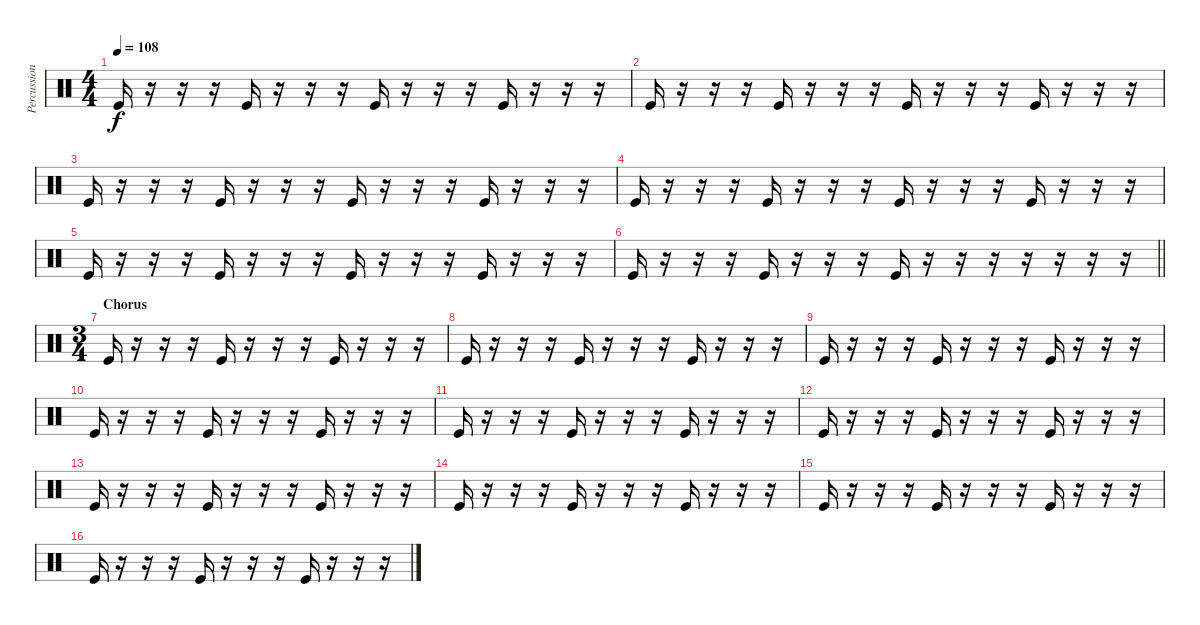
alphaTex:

\track ("Percussion" "Percussion") {instrument percussion}
\staff {score}
\articulation defaults
\ts (4 4)
\tempo 108
\clef neutral
\ks c "Kick (hit)".16{dy f}
r.16 r.16 r.16 "Kick (hit)".16 r.16 r.16 r.16 "Kick (hit)".16 r.16 r.16 r.16 "Kick (hit)".16 r.16 r.16 r.16 |
"Kick (hit)".16 r.16 r.16 r.16 "Kick (hit)".16 r.16 r.16 r.16 "Kick (hit)".16 r.16 r.16 r.16 "Kick (hit)".16 r.16 r.16 r.16 |
"Kick (hit)".16 r.16 r.16 r.16 "Kick (hit)".16 r.16 r.16 r.16 "Kick (hit)".16 r.16 r.16 r.16 "Kick (hit)".16 r.16 r.16 r.16 |
"Kick (hit)".16 r.16 r.16 r.16 "Kick (hit)".16 r.16 r.16 r.16 "Kick (hit)".16 r.16 r.16 r.16 "Kick (hit)".16 r.16 r.16 r.16 |
"Kick (hit)".16 r.16 r.16 r.16 "Kick (hit)".16 r.16 r.16 r.16 "Kick (hit)".16 r.16 r.16 r.16 "Kick (hit)".16 r.16 r.16 r.16 |
\barLineRight lightlight "Kick (hit)".16
r.16 r.16 r.16 "Kick (hit)".16 r.16 r.16 r.16 "Kick (hit)".16 r.16 r.16 r.16 r.16 r.16 r.16 r.16 |
\ts (3 4)
\section ("" "Chorus")
"Kick (hit)".16 r.16 r.16 r.16 "Kick (hit)".16 r.16 r.16 r.16 "Kick (hit)".16 r.16 r.16 r.16 |
"Kick (hit)".16 r.16 r.16 r.16 "Kick (hit)".16 r.16 r.16 r.16 "Kick (hit)".16 r.16 r.16 r.16 |
"Kick (hit)".16 r.16 r.16 r.16 "Kick (hit)".16 r.16 r.16 r.16 "Kick (hit)".16 r.16 r.16 r.16 |
"Kick (hit)".16 r.16 r.16 r.16 "Kick (hit)".16 r.16 r.16 r.16 "Kick (hit)".16 r.16 r.16 r.16 |
"Kick (hit)".16 r.16 r.16 r.16 "Kick (hit)".16 r.16 r.16 r.16 "Kick (hit)".16 r.16 r.16 r.16 |
"Kick (hit)".16 r.16 r.16 r.16 "Kick (hit)".16 r.16 r.16 r.16 "Kick (hit)".16 r.16 r.16 r.16 |
"Kick (hit)".16 r.16 r.16 r.16 "Kick (hit)".16 r.16 r.16 r.16 "Kick (hit)".16 r.16 r.16 r.16 |
"Kick (hit)".16 r.16 r.16 r.16 "Kick (hit)".16 r.16 r.16 r.16 "Kick (hit)".16 r.16 r.16 r.16 |
"Kick (hit)".16 r.16 r.16 r.16 "Kick (hit)".16 r.16 r.16 r.16 "Kick (hit)".16 r.16 r.16 r.16 |
"Kick (hit)".16 r.16 r.16 r.16 "Kick (hit)".16 r.16 r.16 r.16 "Kick (hit)".16 r.16 r.16 r.16
